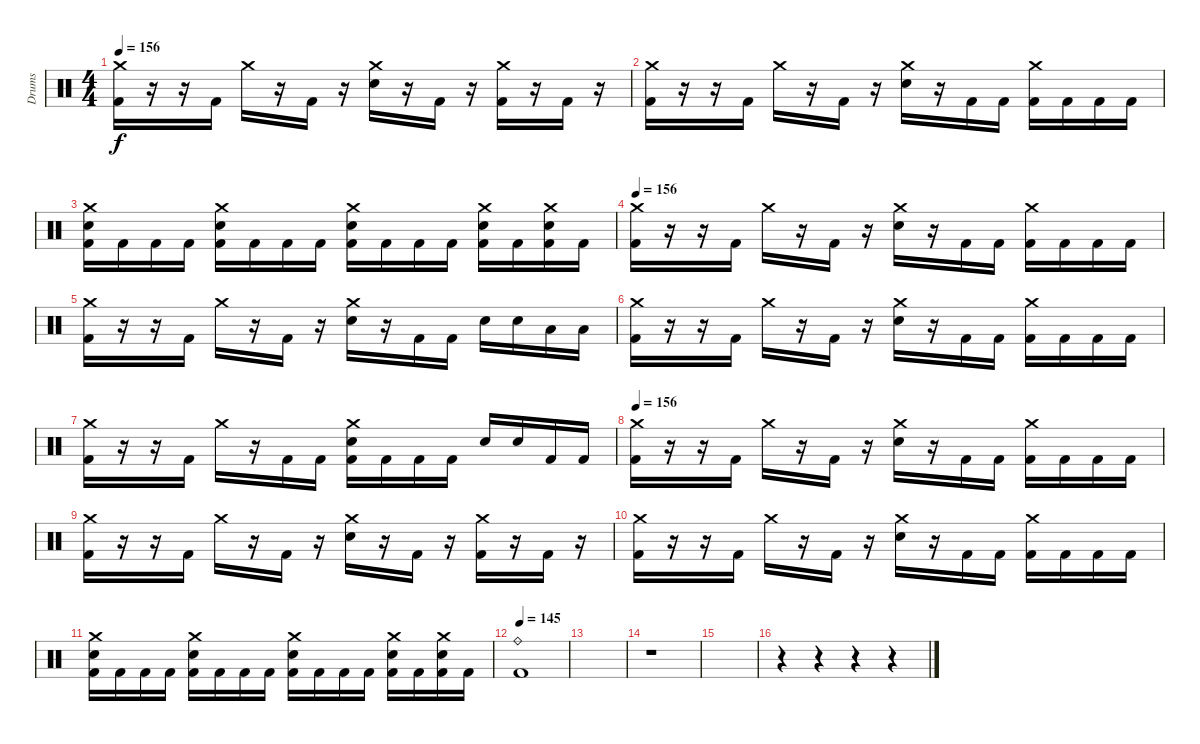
\track ("Drums" "Drums") {instrument percussion}
\staff {score}
\articulation defaults
\ts (4 4)
\tempo 156
\clef neutral
\ks c
("Crash medium (hit)" "Kick (hit) 2").16{dy f} r.16 r.16 "Kick (hit) 2".16 "Crash medium (hit)".16 r.16 "Kick (hit) 2".16 r.16 ("Crash medium (hit)" "Snare (hit) 2").16 r.16 "Kick (hit) 2".16 r.16 ("Crash medium (hit)" "Kick (hit) 2").16 r.16 "Kick (hit) 2".16 r.16 |
("Crash medium (hit)" "Kick (hit) 2").16 r.16 r.16 "Kick (hit) 2".16 "Crash medium (hit)".16 r.16 "Kick (hit) 2".16 r.16 ("Crash medium (hit)" "Snare (hit) 2").16 r.16 "Kick (hit) 2".16 "Kick (hit) 2".16 ("Crash medium (hit)" "Kick (hit) 2").16 "Kick (hit) 2".16 "Kick (hit) 2".16 "Kick (hit) 2".16 |
("Crash medium (hit)" "Snare (hit) 2" "Kick (hit) 2").16 "Kick (hit) 2".16 "Kick (hit) 2".16 "Kick (hit) 2".16 ("Crash medium (hit)" "Snare (hit) 2" "Kick (hit) 2").16 "Kick (hit) 2".16 "Kick (hit) 2".16 "Kick (hit) 2".16 ("Crash medium (hit)" "Snare (hit) 2" "Kick (hit) 2").16 "Kick (hit) 2".16 "Kick (hit) 2".16 "Kick (hit) 2".16 ("Crash medium (hit)" "Snare (hit) 2" "Kick (hit) 2").16 "Kick (hit) 2".16 ("Crash medium (hit)" "Snare (hit) 2" "Kick (hit) 2").16 "Kick (hit) 2".16 |
\tempo 156
("Crash medium (hit)" "Kick (hit) 2").16 r.16 r.16 "Kick (hit) 2".16 "Crash medium (hit)".16 r.16 "Kick (hit) 2".16 r.16 ("Crash medium (hit)" "Snare (hit) 2").16 r.16 "Kick (hit) 2".16 "Kick (hit) 2".16 ("Crash medium (hit)" "Kick (hit) 2").16 "Kick (hit) 2".16 "Kick (hit) 2".16 "Kick (hit) 2".16 |
("Crash medium (hit)" "Kick (hit) 2").16 r.16 r.16 "Kick (hit) 2".16 "Crash medium (hit)".16 r.16 "Kick (hit) 2".16 r.16 ("Crash medium (hit)" "Snare (hit) 2").16 r.16 "Kick (hit) 2".16 "Kick (hit) 2".16 "Snare (hit) 2".16 "Snare (hit) 2".16 "Low Tom (hit)".16 "Low Tom (hit)".16 |
("Crash medium (hit)" "Kick (hit) 2").16 r.16 r.16 "Kick (hit) 2".16 "Crash medium (hit)".16 r.16 "Kick (hit) 2".16 r.16 ("Crash medium (hit)" "Snare (hit) 2").16 r.16 "Kick (hit) 2".16 "Kick (hit) 2".16 ("Crash medium (hit)" "Kick (hit) 2").16 "Kick (hit) 2".16 "Kick (hit) 2".16 "Kick (hit) 2".16 |
("Crash medium (hit)" "Kick (hit) 2").16 r.16 r.16 "Kick (hit) 2".16 "Crash medium (hit)".16 r.16 "Kick (hit) 2".16 "Kick (hit) 2".16 ("Crash medium (hit)" "Snare (hit) 2" "Kick (hit) 2").16 "Kick (hit) 2".16 "Kick (hit) 2".16 "Kick (hit) 2".16 "Snare (hit) 2".16 "Snare (hit) 2".16 "Kick (hit) 2".16 "Kick (hit) 2".16 |
\tempo 156
("Crash medium (hit)" "Kick (hit) 2").16 r.16 r.16 "Kick (hit) 2".16 "Crash medium (hit)".16 r.16 "Kick (hit) 2".16 r.16 ("Crash medium (hit)" "Snare (hit) 2").16 r.16 "Kick (hit) 2".16 "Kick (hit) 2".16 ("Crash medium (hit)" "Kick (hit) 2").16 "Kick (hit) 2".16 "Kick (hit) 2".16 "Kick (hit) 2".16 |
("Crash medium (hit)" "Kick (hit) 2").16 r.16 r.16 "Kick (hit) 2".16 "Crash medium (hit)".16 r.16 "Kick (hit) 2".16 r.16 ("Crash medium (hit)" "Snare (hit) 2").16 r.16 "Kick (hit) 2".16 r.16 ("Crash medium (hit)" "Kick (hit) 2").16 r.16 "Kick (hit) 2".16 r.16 |
("Crash medium (hit)" "Kick (hit) 2").16 r.16 r.16 "Kick (hit) 2".16 "Crash medium (hit)".16 r.16 "Kick (hit) 2".16 r.16 ("Crash medium (hit)" "Snare (hit) 2").16 r.16 "Kick (hit) 2".16 "Kick (hit) 2".16 ("Crash medium (hit)" "Kick (hit) 2").16 "Kick (hit) 2".16 "Kick (hit) 2".16 "Kick (hit) 2".16 |
("Crash medium (hit)" "Snare (hit) 2" "Kick (hit) 2").16 "Kick (hit) 2".16 "Kick (hit) 2".16 "Kick (hit) 2".16 ("Crash medium (hit)" "Snare (hit) 2" "Kick (hit) 2").16 "Kick (hit) 2".16 "Kick (hit) 2".16 "Kick (hit) 2".16 ("Crash medium (hit)" "Snare (hit) 2" "Kick (hit) 2").16 "Kick (hit) 2".16 "Kick (hit) 2".16 "Kick (hit) 2".16 ("Crash medium (hit)" "Snare (hit) 2" "Kick (hit) 2").16 "Kick (hit) 2".16 ("Crash medium (hit)" "Snare (hit) 2" "Kick (hit) 2").16 "Kick (hit) 2".16 |
\tempo 145
("Ride (bell)" "Kick (hit) 2").1 |
|
r.1 |
|
r.4 r.4 r.4 r.4
